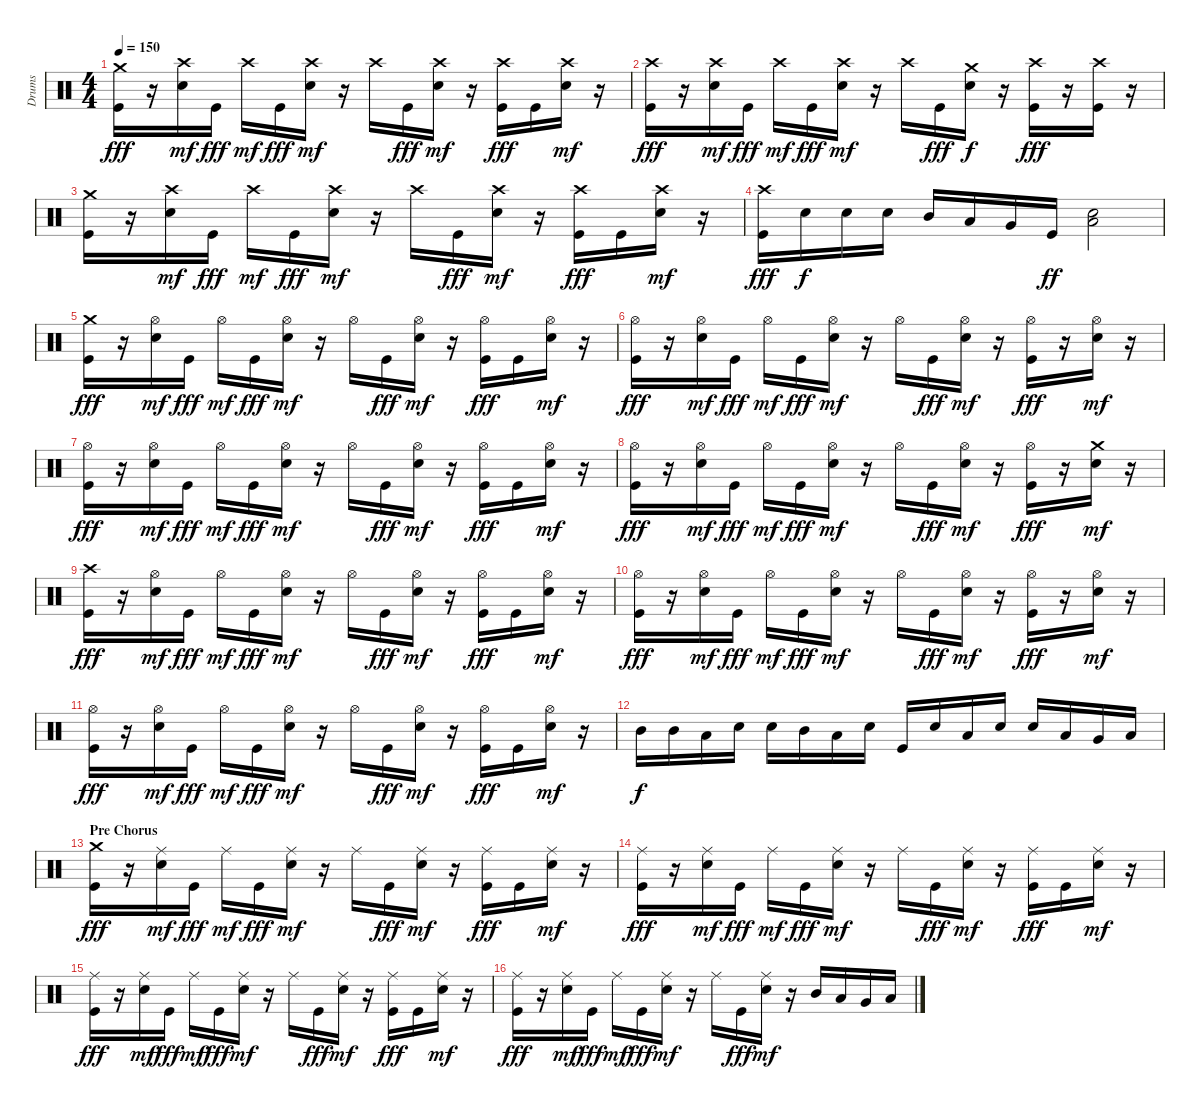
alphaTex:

\track ("Drums" "Drums") {instrument percussion}
\staff {score}
\articulation defaults
\ts (4 4)
\tempo 150
\clef neutral
\ks c
("Crash medium (hit)" "Kick (hit)").16{dy fff} r.16 ("Crash high (hit)" "Electric Snare (hit)").16{dy mf} "Kick (hit)".16{dy fff} "Crash high (hit)".16{dy mf} "Kick (hit)".16{dy fff} ("Crash high (hit)" "Electric Snare (hit)").16{dy mf} r.16 "Crash high (hit)".16 "Kick (hit)".16{dy fff} ("Crash high (hit)" "Electric Snare (hit)").16{dy mf} r.16 ("Crash high (hit)" "Kick (hit)").16{dy fff} "Kick (hit)".16 ("Crash high (hit)" "Electric Snare (hit)").16{dy mf} r.16 |
("Crash high (hit)" "Kick (hit)").16{dy fff} r.16 ("Crash high (hit)" "Electric Snare (hit)").16{dy mf} "Kick (hit)".16{dy fff} "Crash high (hit)".16{dy mf} "Kick (hit)".16{dy fff} ("Crash high (hit)" "Electric Snare (hit)").16{dy mf} r.16 "Crash high (hit)".16 "Kick (hit)".16{dy fff} ("Crash medium (hit)" "Electric Snare (hit)").16{dy f} r.16 ("Crash high (hit)" "Kick (hit)").16{dy fff} r.16 ("Crash high (hit)" "Kick (hit)").16 r.16 |
("Crash medium (hit)" "Kick (hit)").16 r.16 ("Crash high (hit)" "Electric Snare (hit)").16{dy mf} "Kick (hit)".16{dy fff} "Crash high (hit)".16{dy mf} "Kick (hit)".16{dy fff} ("Crash high (hit)" "Electric Snare (hit)").16{dy mf} r.16 "Crash high (hit)".16 "Kick (hit)".16{dy fff} ("Crash high (hit)" "Electric Snare (hit)").16{dy mf} r.16 ("Crash high (hit)" "Kick (hit)").16{dy fff} "Kick (hit)".16 ("Crash high (hit)" "Electric Snare (hit)").16{dy mf} r.16 |
("Crash high (hit)" "Kick (hit)").16{dy fff} "Electric Snare (hit)".16{dy f} "Electric Snare (hit)".16 "Electric Snare (hit)".16 "Mid Tom (hit)".16 "Low Tom (hit)".16 "Very Low Tom (hit)".16 "Kick (hit)".16{dy ff} ("Electric Snare (hit)" "Low Floor Tom (hit)").2 |
("Crash medium (hit)" "Kick (hit)").16{dy fff} r.16 ("Hi-Hat (open)" "Electric Snare (hit)").16{dy mf} "Kick (hit)".16{dy fff} "Hi-Hat (open)".16{dy mf} "Kick (hit)".16{dy fff} ("Hi-Hat (open)" "Electric Snare (hit)").16{dy mf} r.16 "Hi-Hat (open)".16 "Kick (hit)".16{dy fff} ("Hi-Hat (open)" "Electric Snare (hit)").16{dy mf} r.16 ("Hi-Hat (open)" "Kick (hit)").16{dy fff} "Kick (hit)".16 ("Hi-Hat (open)" "Electric Snare (hit)").16{dy mf} r.16 |
("Hi-Hat (open)" "Kick (hit)").16{dy fff} r.16 ("Hi-Hat (open)" "Electric Snare (hit)").16{dy mf} "Kick (hit)".16{dy fff} "Hi-Hat (open)".16{dy mf} "Kick (hit)".16{dy fff} ("Hi-Hat (open)" "Electric Snare (hit)").16{dy mf} r.16 "Hi-Hat (open)".16 "Kick (hit)".16{dy fff} ("Hi-Hat (open)" "Electric Snare (hit)").16{dy mf} r.16 ("Hi-Hat (open)" "Kick (hit)").16{dy fff} r.16 ("Hi-Hat (open)" "Electric Snare (hit)").16{dy mf} r.16 |
("Hi-Hat (open)" "Kick (hit)").16{dy fff} r.16 ("Hi-Hat (open)" "Electric Snare (hit)").16{dy mf} "Kick (hit)".16{dy fff} "Hi-Hat (open)".16{dy mf} "Kick (hit)".16{dy fff} ("Hi-Hat (open)" "Electric Snare (hit)").16{dy mf} r.16 "Hi-Hat (open)".16 "Kick (hit)".16{dy fff} ("Hi-Hat (open)" "Electric Snare (hit)").16{dy mf} r.16 ("Hi-Hat (open)" "Kick (hit)").16{dy fff} "Kick (hit)".16 ("Hi-Hat (open)" "Electric Snare (hit)").16{dy mf} r.16 |
("Hi-Hat (open)" "Kick (hit)").16{dy fff} r.16 ("Hi-Hat (open)" "Electric Snare (hit)").16{dy mf} "Kick (hit)".16{dy fff} "Hi-Hat (open)".16{dy mf} "Kick (hit)".16{dy fff} ("Hi-Hat (open)" "Electric Snare (hit)").16{dy mf} r.16 "Hi-Hat (open)".16 "Kick (hit)".16{dy fff} ("Hi-Hat (open)" "Electric Snare (hit)").16{dy mf} r.16 ("Hi-Hat (open)" "Kick (hit)").16{dy fff} r.16 ("Crash medium (hit)" "Electric Snare (hit)").16{dy mf} r.16 |
("Crash high (hit)" "Kick (hit)").16{dy fff} r.16 ("Hi-Hat (open)" "Electric Snare (hit)").16{dy mf} "Kick (hit)".16{dy fff} "Hi-Hat (open)".16{dy mf} "Kick (hit)".16{dy fff} ("Hi-Hat (open)" "Electric Snare (hit)").16{dy mf} r.16 "Hi-Hat (open)".16 "Kick (hit)".16{dy fff} ("Hi-Hat (open)" "Electric Snare (hit)").16{dy mf} r.16 ("Hi-Hat (open)" "Kick (hit)").16{dy fff} "Kick (hit)".16 ("Hi-Hat (open)" "Electric Snare (hit)").16{dy mf} r.16 |
("Hi-Hat (open)" "Kick (hit)").16{dy fff} r.16 ("Hi-Hat (open)" "Electric Snare (hit)").16{dy mf} "Kick (hit)".16{dy fff} "Hi-Hat (open)".16{dy mf} "Kick (hit)".16{dy fff} ("Hi-Hat (open)" "Electric Snare (hit)").16{dy mf} r.16 "Hi-Hat (open)".16 "Kick (hit)".16{dy fff} ("Hi-Hat (open)" "Electric Snare (hit)").16{dy mf} r.16 ("Hi-Hat (open)" "Kick (hit)").16{dy fff} r.16 ("Hi-Hat (open)" "Electric Snare (hit)").16{dy mf} r.16 |
("Hi-Hat (open)" "Kick (hit)").16{dy fff} r.16 ("Hi-Hat (open)" "Electric Snare (hit)").16{dy mf} "Kick (hit)".16{dy fff} "Hi-Hat (open)".16{dy mf} "Kick (hit)".16{dy fff} ("Hi-Hat (open)" "Electric Snare (hit)").16{dy mf} r.16 "Hi-Hat (open)".16 "Kick (hit)".16{dy fff} ("Hi-Hat (open)" "Electric Snare (hit)").16{dy mf} r.16 ("Hi-Hat (open)" "Kick (hit)").16{dy fff} "Kick (hit)".16 ("Hi-Hat (open)" "Electric Snare (hit)").16{dy mf} r.16 |
"Mid Tom (hit)".16{dy f} "Mid Tom (hit)".16 "Low Tom (hit)".16 "Electric Snare (hit)".16 "Electric Snare (hit)".16 "Mid Tom (hit)".16 "Low Tom (hit)".16 "Electric Snare (hit)".16 "Kick (hit)".16 "Electric Snare (hit)".16 "Low Tom (hit)".16 "Electric Snare (hit)".16 "Electric Snare (hit)".16 "Low Tom (hit)".16 "Very Low Tom (hit)".16 "Low Floor Tom (hit)".16 |
\section ("" "Pre Chorus")
("Crash medium (hit)" "Kick (hit)").16{dy fff} r.16 ("Ride (middle)" "Electric Snare (hit)").16{dy mf} "Kick (hit)".16{dy fff} "Ride (middle)".16{dy mf} "Kick (hit)".16{dy fff} ("Ride (middle)" "Electric Snare (hit)").16{dy mf} r.16 "Ride (middle)".16 "Kick (hit)".16{dy fff} ("Ride (middle)" "Electric Snare (hit)").16{dy mf} r.16 ("Ride (middle)" "Kick (hit)").16{dy fff} "Kick (hit)".16 ("Ride (middle)" "Electric Snare (hit)").16{dy mf} r.16 |
("Ride (middle)" "Kick (hit)").16{dy fff} r.16 ("Ride (middle)" "Electric Snare (hit)").16{dy mf} "Kick (hit)".16{dy fff} "Ride (middle)".16{dy mf} "Kick (hit)".16{dy fff} ("Ride (middle)" "Electric Snare (hit)").16{dy mf} r.16 "Ride (middle)".16 "Kick (hit)".16{dy fff} ("Ride (middle)" "Electric Snare (hit)").16{dy mf} r.16 ("Ride (middle)" "Kick (hit)").16{dy fff} "Kick (hit)".16 ("Ride (middle)" "Electric Snare (hit)").16{dy mf} r.16 |
("Ride (middle)" "Kick (hit)").16{dy fff} r.16 ("Ride (middle)" "Electric Snare (hit)").16{dy mf} "Kick (hit)".16{dy fff} "Ride (middle)".16{dy mf} "Kick (hit)".16{dy fff} ("Ride (middle)" "Electric Snare (hit)").16{dy mf} r.16 "Ride (middle)".16 "Kick (hit)".16{dy fff} ("Ride (middle)" "Electric Snare (hit)").16{dy mf} r.16 ("Ride (middle)" "Kick (hit)").16{dy fff} "Kick (hit)".16 ("Ride (middle)" "Electric Snare (hit)").16{dy mf} r.16 |
("Ride (middle)" "Kick (hit)").16{dy fff} r.16 ("Ride (middle)" "Electric Snare (hit)").16{dy mf} "Kick (hit)".16{dy fff} "Ride (middle)".16{dy mf} "Kick (hit)".16{dy fff} ("Ride (middle)" "Electric Snare (hit)").16{dy mf} r.16 "Ride (middle)".16 "Kick (hit)".16{dy fff} ("Ride (middle)" "Electric Snare (hit)").16{dy mf} r.16 "Mid Tom (hit)".16 "Low Tom (hit)".16 "Very Low Tom (hit)".16 "Low Floor Tom (hit)".16
